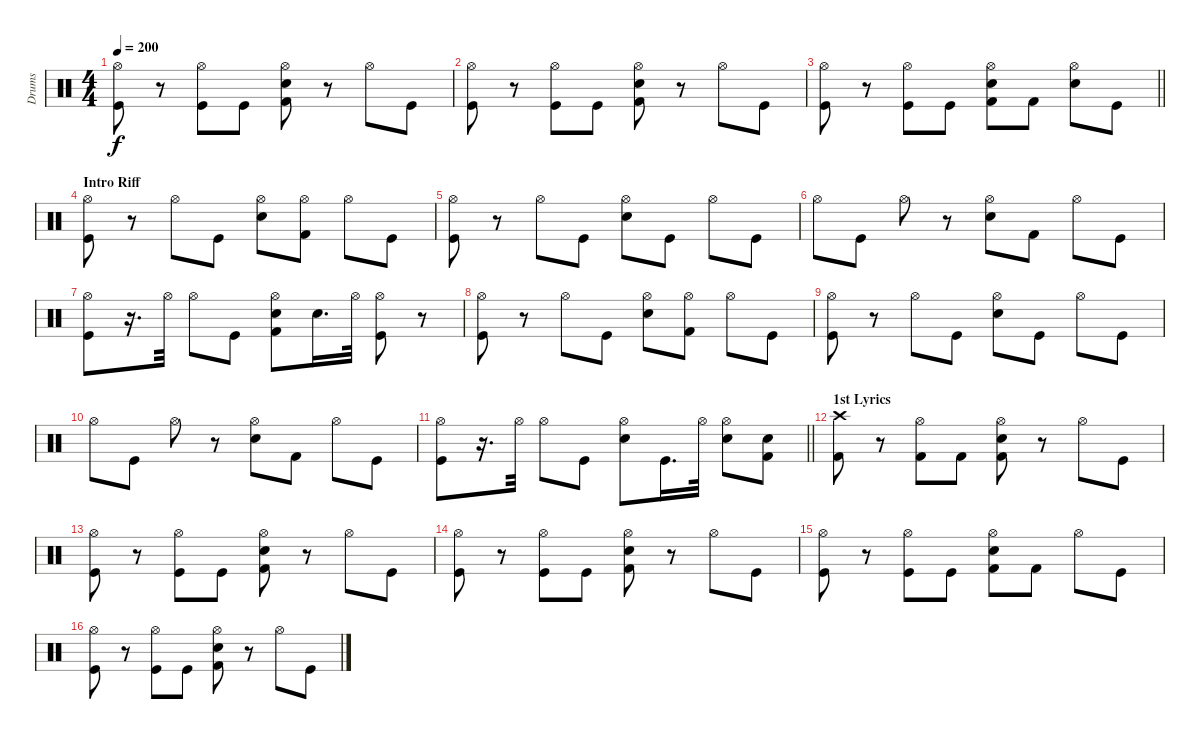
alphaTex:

\track ("Drums" "Drums") {instrument percussion}
\staff {score}
\articulation defaults
\ts (4 4)
\tempo 200
\clef neutral
\ks c
("Kick (hit)" "Hi-Hat (open)").8{dy f} r.8 ("Kick (hit)" "Hi-Hat (open)").8 "Kick (hit)".8 ("Kick (hit) 2" "Electric Snare (hit)" "Hi-Hat (open)").8 r.8 "Hi-Hat (open)".8 "Kick (hit)".8 |
("Kick (hit)" "Hi-Hat (open)").8 r.8 ("Kick (hit)" "Hi-Hat (open)").8 "Kick (hit)".8 ("Kick (hit) 2" "Electric Snare (hit)" "Hi-Hat (open)").8 r.8 "Hi-Hat (open)".8 "Kick (hit)".8 |
\barLineRight lightlight
("Kick (hit)" "Hi-Hat (open)").8 r.8 ("Kick (hit)" "Hi-Hat (open)").8 "Kick (hit)".8 ("Kick (hit) 2" "Snare (hit) 2" "Hi-Hat (open)").8 "Kick (hit) 2".8 ("Electric Snare (hit)" "Hi-Hat (open)").8 "Kick (hit)".8 |
\section ("" "Intro Riff")
("Kick (hit)" "Hi-Hat (open)").8 r.8 "Hi-Hat (open)".8 "Kick (hit)".8 ("Electric Snare (hit)" "Hi-Hat (open)").8 ("Kick (hit) 2" "Hi-Hat (open)").8 "Hi-Hat (open)".8 "Kick (hit)".8 |
("Kick (hit)" "Hi-Hat (open)").8 r.8 "Hi-Hat (open)".8 "Kick (hit)".8 ("Electric Snare (hit)" "Hi-Hat (open)").8 "Kick (hit)".8 "Hi-Hat (open)".8 "Kick (hit)".8 |
"Hi-Hat (open)".8 "Kick (hit)".8 "Hi-Hat (open)".8 r.8 ("Electric Snare (hit)" "Hi-Hat (open)").8 "Kick (hit) 2".8 "Hi-Hat (open)".8 "Kick (hit)".8 |
("Kick (hit)" "Hi-Hat (open)").8 r.16{d} "Hi-Hat (open)".32 "Hi-Hat (open)".8 "Kick (hit)".8 ("Kick (hit) 2" "Snare (hit) 2" "Hi-Hat (open)").8 "Electric Snare (hit)".16{d} "Hi-Hat (open)".32 ("Kick (hit)" "Hi-Hat (open)").8 r.8 |
("Kick (hit)" "Hi-Hat (open)").8 r.8 "Hi-Hat (open)".8 "Kick (hit)".8 ("Electric Snare (hit)" "Hi-Hat (open)").8 ("Kick (hit) 2" "Hi-Hat (open)").8 "Hi-Hat (open)".8 "Kick (hit)".8 |
("Kick (hit)" "Hi-Hat (open)").8 r.8 "Hi-Hat (open)".8 "Kick (hit)".8 ("Electric Snare (hit)" "Hi-Hat (open)").8 "Kick (hit)".8 "Hi-Hat (open)".8 "Kick (hit)".8 |
"Hi-Hat (open)".8 "Kick (hit)".8 "Hi-Hat (open)".8 r.8 ("Electric Snare (hit)" "Hi-Hat (open)").8 "Kick (hit) 2".8 "Hi-Hat (open)".8 "Kick (hit)".8 |
\barLineRight lightlight
("Kick (hit)" "Hi-Hat (open)").8 r.16{d} "Hi-Hat (open)".32 "Hi-Hat (open)".8 "Kick (hit)".8 ("Electric Snare (hit)" "Hi-Hat (open)").8 "Kick (hit)".16{d} "Hi-Hat (open)".32 ("Snare (hit) 2" "Hi-Hat (open)").8 ("Kick (hit) 2" "Electric Snare (hit)").8 |
\section ("" "1st Lyrics")
("Kick (hit) 2" "Crash high (hit)").8 r.8 ("Kick (hit) 2" "Hi-Hat (open)").8 "Kick (hit) 2".8 ("Kick (hit) 2" "Electric Snare (hit)" "Hi-Hat (open)").8 r.8 "Hi-Hat (open)".8 "Kick (hit)".8 |
("Kick (hit)" "Hi-Hat (open)").8 r.8 ("Kick (hit)" "Hi-Hat (open)").8 "Kick (hit)".8 ("Kick (hit) 2" "Electric Snare (hit)" "Hi-Hat (open)").8 r.8 "Hi-Hat (open)".8 "Kick (hit)".8 |
("Kick (hit)" "Hi-Hat (open)").8 r.8 ("Kick (hit)" "Hi-Hat (open)").8 "Kick (hit)".8 ("Kick (hit) 2" "Electric Snare (hit)" "Hi-Hat (open)").8 r.8 "Hi-Hat (open)".8 "Kick (hit)".8 |
("Kick (hit)" "Hi-Hat (open)").8 r.8 ("Kick (hit)" "Hi-Hat (open)").8 "Kick (hit)".8 ("Kick (hit) 2" "Electric Snare (hit)" "Hi-Hat (open)").8 "Kick (hit) 2".8 "Hi-Hat (open)".8 "Kick (hit)".8 |
("Kick (hit)" "Hi-Hat (open)").8 r.8 ("Kick (hit)" "Hi-Hat (open)").8 "Kick (hit)".8 ("Kick (hit) 2" "Electric Snare (hit)" "Hi-Hat (open)").8 r.8 "Hi-Hat (open)".8 "Kick (hit)".8
